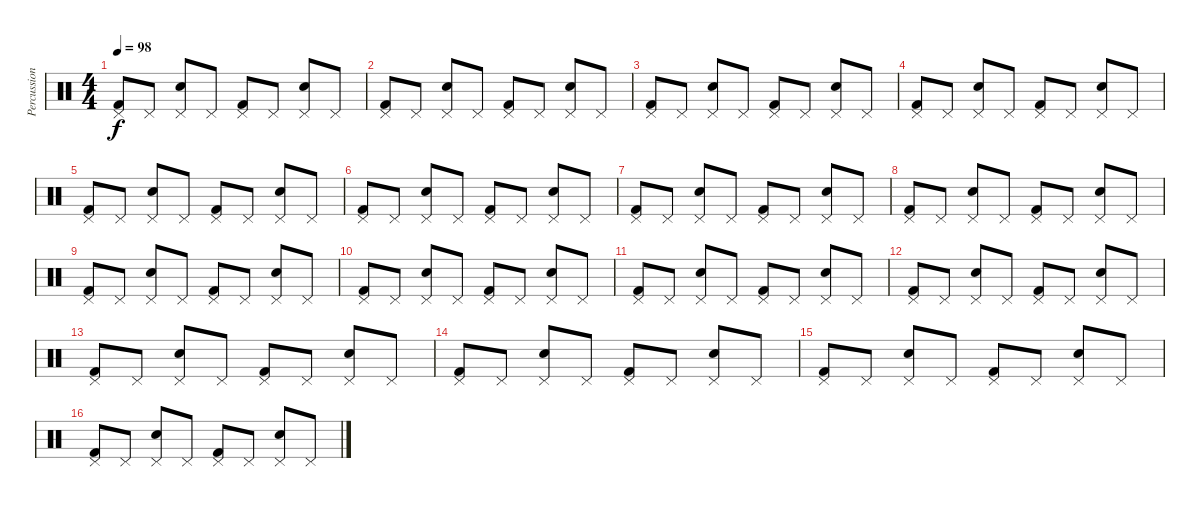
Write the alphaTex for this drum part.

\track ("Percussions" "Percussion") {instrument percussion}
\staff {score}
\articulation defaults
\ts (4 4)
\tempo 98
\clef neutral
\ks c
("Pedal Hi-Hat (hit)" "Kick (hit) 2").8{dy f} "Pedal Hi-Hat (hit)".8 ("Pedal Hi-Hat (hit)" "Electric Snare (hit)").8 "Pedal Hi-Hat (hit)".8 ("Pedal Hi-Hat (hit)" "Kick (hit) 2").8 "Pedal Hi-Hat (hit)".8 ("Pedal Hi-Hat (hit)" "Electric Snare (hit)").8 "Pedal Hi-Hat (hit)".8 |
("Pedal Hi-Hat (hit)" "Kick (hit) 2").8 "Pedal Hi-Hat (hit)".8 ("Pedal Hi-Hat (hit)" "Electric Snare (hit)").8 "Pedal Hi-Hat (hit)".8 ("Pedal Hi-Hat (hit)" "Kick (hit) 2").8 "Pedal Hi-Hat (hit)".8 ("Pedal Hi-Hat (hit)" "Electric Snare (hit)").8 "Pedal Hi-Hat (hit)".8 |
("Pedal Hi-Hat (hit)" "Kick (hit) 2").8 "Pedal Hi-Hat (hit)".8 ("Pedal Hi-Hat (hit)" "Electric Snare (hit)").8 "Pedal Hi-Hat (hit)".8 ("Pedal Hi-Hat (hit)" "Kick (hit) 2").8 "Pedal Hi-Hat (hit)".8 ("Pedal Hi-Hat (hit)" "Electric Snare (hit)").8 "Pedal Hi-Hat (hit)".8 |
("Pedal Hi-Hat (hit)" "Kick (hit) 2").8 "Pedal Hi-Hat (hit)".8 ("Pedal Hi-Hat (hit)" "Electric Snare (hit)").8 "Pedal Hi-Hat (hit)".8 ("Pedal Hi-Hat (hit)" "Kick (hit) 2").8 "Pedal Hi-Hat (hit)".8 ("Pedal Hi-Hat (hit)" "Electric Snare (hit)").8 "Pedal Hi-Hat (hit)".8 |
("Pedal Hi-Hat (hit)" "Kick (hit) 2").8 "Pedal Hi-Hat (hit)".8 ("Pedal Hi-Hat (hit)" "Electric Snare (hit)").8 "Pedal Hi-Hat (hit)".8 ("Pedal Hi-Hat (hit)" "Kick (hit) 2").8 "Pedal Hi-Hat (hit)".8 ("Pedal Hi-Hat (hit)" "Electric Snare (hit)").8 "Pedal Hi-Hat (hit)".8 |
("Pedal Hi-Hat (hit)" "Kick (hit) 2").8 "Pedal Hi-Hat (hit)".8 ("Pedal Hi-Hat (hit)" "Electric Snare (hit)").8 "Pedal Hi-Hat (hit)".8 ("Pedal Hi-Hat (hit)" "Kick (hit) 2").8 "Pedal Hi-Hat (hit)".8 ("Pedal Hi-Hat (hit)" "Electric Snare (hit)").8 "Pedal Hi-Hat (hit)".8 |
("Pedal Hi-Hat (hit)" "Kick (hit) 2").8 "Pedal Hi-Hat (hit)".8 ("Pedal Hi-Hat (hit)" "Electric Snare (hit)").8 "Pedal Hi-Hat (hit)".8 ("Pedal Hi-Hat (hit)" "Kick (hit) 2").8 "Pedal Hi-Hat (hit)".8 ("Pedal Hi-Hat (hit)" "Electric Snare (hit)").8 "Pedal Hi-Hat (hit)".8 |
("Pedal Hi-Hat (hit)" "Kick (hit) 2").8 "Pedal Hi-Hat (hit)".8 ("Pedal Hi-Hat (hit)" "Electric Snare (hit)").8 "Pedal Hi-Hat (hit)".8 ("Pedal Hi-Hat (hit)" "Kick (hit) 2").8 "Pedal Hi-Hat (hit)".8 ("Pedal Hi-Hat (hit)" "Electric Snare (hit)").8 "Pedal Hi-Hat (hit)".8 |
("Pedal Hi-Hat (hit)" "Kick (hit) 2").8 "Pedal Hi-Hat (hit)".8 ("Pedal Hi-Hat (hit)" "Electric Snare (hit)").8 "Pedal Hi-Hat (hit)".8 ("Pedal Hi-Hat (hit)" "Kick (hit) 2").8 "Pedal Hi-Hat (hit)".8 ("Pedal Hi-Hat (hit)" "Electric Snare (hit)").8 "Pedal Hi-Hat (hit)".8 |
("Pedal Hi-Hat (hit)" "Kick (hit) 2").8 "Pedal Hi-Hat (hit)".8 ("Pedal Hi-Hat (hit)" "Electric Snare (hit)").8 "Pedal Hi-Hat (hit)".8 ("Pedal Hi-Hat (hit)" "Kick (hit) 2").8 "Pedal Hi-Hat (hit)".8 ("Pedal Hi-Hat (hit)" "Electric Snare (hit)").8 "Pedal Hi-Hat (hit)".8 |
("Pedal Hi-Hat (hit)" "Kick (hit) 2").8 "Pedal Hi-Hat (hit)".8 ("Pedal Hi-Hat (hit)" "Electric Snare (hit)").8 "Pedal Hi-Hat (hit)".8 ("Pedal Hi-Hat (hit)" "Kick (hit) 2").8 "Pedal Hi-Hat (hit)".8 ("Pedal Hi-Hat (hit)" "Electric Snare (hit)").8 "Pedal Hi-Hat (hit)".8 |
("Pedal Hi-Hat (hit)" "Kick (hit) 2").8 "Pedal Hi-Hat (hit)".8 ("Pedal Hi-Hat (hit)" "Electric Snare (hit)").8 "Pedal Hi-Hat (hit)".8 ("Pedal Hi-Hat (hit)" "Kick (hit) 2").8 "Pedal Hi-Hat (hit)".8 ("Pedal Hi-Hat (hit)" "Electric Snare (hit)").8 "Pedal Hi-Hat (hit)".8 |
("Pedal Hi-Hat (hit)" "Kick (hit) 2").8 "Pedal Hi-Hat (hit)".8 ("Pedal Hi-Hat (hit)" "Electric Snare (hit)").8 "Pedal Hi-Hat (hit)".8 ("Pedal Hi-Hat (hit)" "Kick (hit) 2").8 "Pedal Hi-Hat (hit)".8 ("Pedal Hi-Hat (hit)" "Electric Snare (hit)").8 "Pedal Hi-Hat (hit)".8 |
("Pedal Hi-Hat (hit)" "Kick (hit) 2").8 "Pedal Hi-Hat (hit)".8 ("Pedal Hi-Hat (hit)" "Electric Snare (hit)").8 "Pedal Hi-Hat (hit)".8 ("Pedal Hi-Hat (hit)" "Kick (hit) 2").8 "Pedal Hi-Hat (hit)".8 ("Pedal Hi-Hat (hit)" "Electric Snare (hit)").8 "Pedal Hi-Hat (hit)".8 |
("Pedal Hi-Hat (hit)" "Kick (hit) 2").8 "Pedal Hi-Hat (hit)".8 ("Pedal Hi-Hat (hit)" "Electric Snare (hit)").8 "Pedal Hi-Hat (hit)".8 ("Pedal Hi-Hat (hit)" "Kick (hit) 2").8 "Pedal Hi-Hat (hit)".8 ("Pedal Hi-Hat (hit)" "Electric Snare (hit)").8 "Pedal Hi-Hat (hit)".8 |
("Pedal Hi-Hat (hit)" "Kick (hit) 2").8 "Pedal Hi-Hat (hit)".8 ("Pedal Hi-Hat (hit)" "Electric Snare (hit)").8 "Pedal Hi-Hat (hit)".8 ("Pedal Hi-Hat (hit)" "Kick (hit) 2").8 "Pedal Hi-Hat (hit)".8 ("Pedal Hi-Hat (hit)" "Electric Snare (hit)").8 "Pedal Hi-Hat (hit)".8
